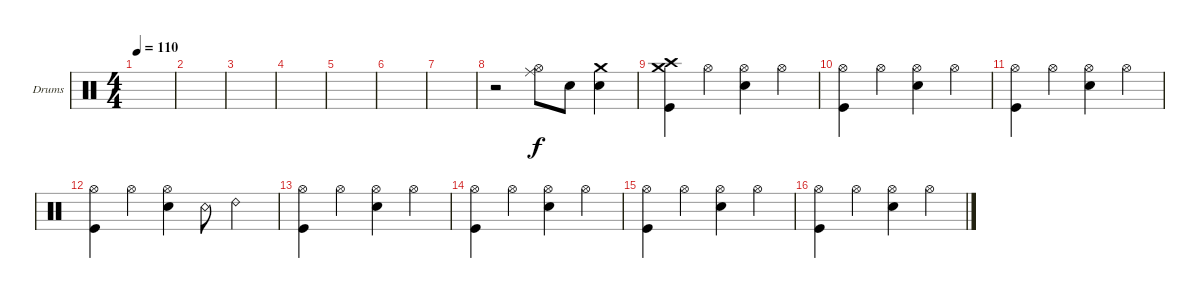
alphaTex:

\defaultSystemsLayout 4
\bracketExtendMode groupsimilarinstruments
\firstSystemTrackNameOrientation horizontal
\otherSystemsTrackNameOrientation horizontal
\track ("Drumkit" "Drums") {instrument percussion}
\staff {score}
\articulation defaults
\ts (4 4)
\tempo 110
\clef neutral
\scale
0.333333
\ks c
|
\scale
0.333333 |
\scale
0.333333 |
\scale
0.333333 |
\scale
0.333333 |
\scale
0.333333 |
\scale
0.333333 |
\scale
0.333333 r.2 ("Ride (middle)" "Hi-Hat (open)").8 "Snare (hit) 2".8 ("Snare (hit) 2" "Crash medium (hit)").4 |
\scale
0.333333 ("Crash medium (hit)" "Crash high (hit)" "Kick (hit)").4 "Hi-Hat (open)".4 ("Snare (hit) 2" "Hi-Hat (open)").4 "Hi-Hat (open)".4 |
\scale
0.333333 ("Hi-Hat (open)" "Kick (hit)").4 "Hi-Hat (open)".4 ("Snare (hit) 2" "Hi-Hat (open)").4 "Hi-Hat (open)".4 |
\scale
0.333333 ("Hi-Hat (open)" "Kick (hit)").4 "Hi-Hat (open)".4 ("Snare (hit) 2" "Hi-Hat (open)").4 "Hi-Hat (open)".4 |
\scale
0.333333 ("Hi-Hat (open)" "Kick (hit)").4 "Hi-Hat (open)".4 ("Snare (hit) 2" "Hi-Hat (open)").4 "Snare (rim shot)".8 "Ride (bell) 2".2 |
\scale
0.333333 ("Hi-Hat (open)" "Kick (hit)").4 "Hi-Hat (open)".4 ("Snare (hit) 2" "Hi-Hat (open)").4 "Hi-Hat (open)".4 |
\scale
0.333333 ("Hi-Hat (open)" "Kick (hit)").4 "Hi-Hat (open)".4 ("Snare (hit) 2" "Hi-Hat (open)").4 "Hi-Hat (open)".4 |
("Hi-Hat (open)" "Kick (hit)").4 "Hi-Hat (open)".4 ("Snare (hit) 2" "Hi-Hat (open)").4 "Hi-Hat (open)".4 |
("Hi-Hat (open)" "Kick (hit)").4 "Hi-Hat (open)".4 ("Snare (hit) 2" "Hi-Hat (open)").4 "Hi-Hat (open)".4
